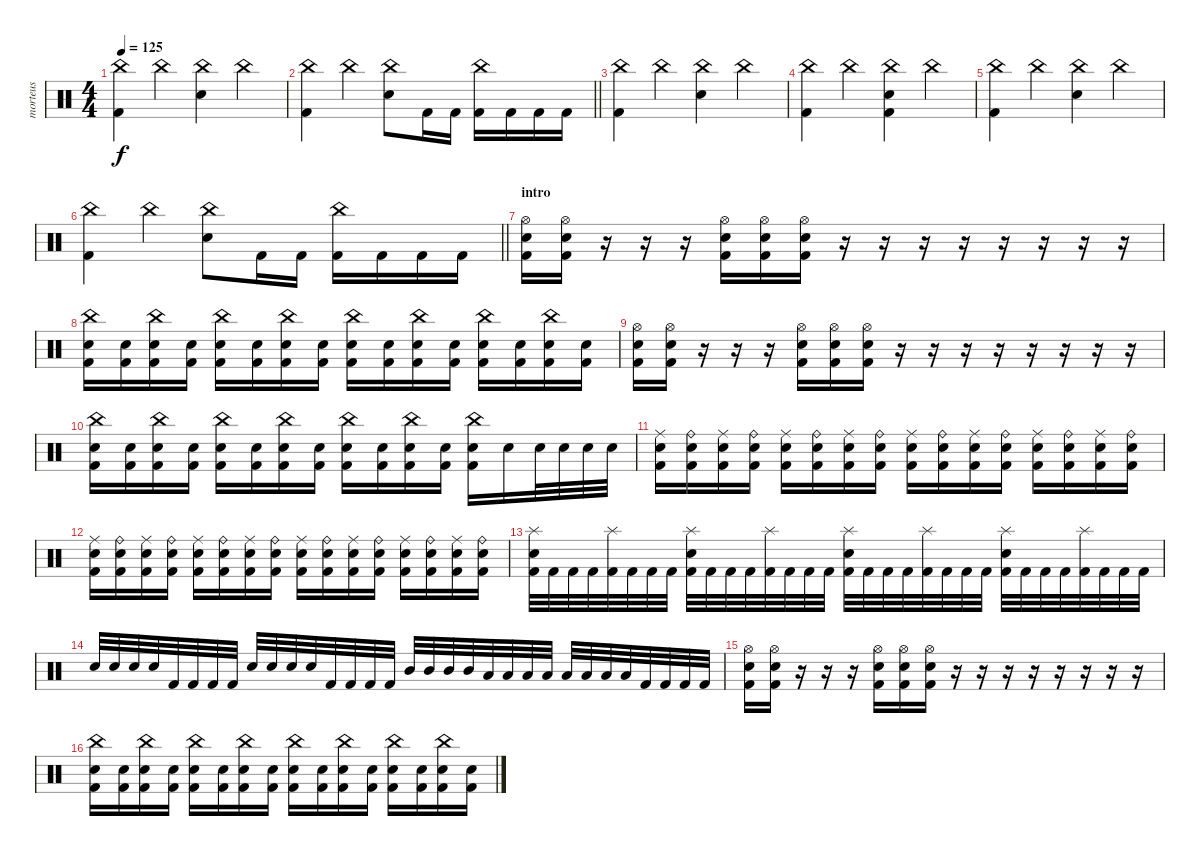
\track ("morteus" "morteus") {instrument percussion}
\staff {score}
\articulation defaults
\ts (4 4)
\tempo 125
\clef neutral
\ks c
("China (hit)" "Kick (hit) 2").4{dy f} "China (hit)".4 ("China (hit)" "Electric Snare (hit)").4 "China (hit)".4 |
\barLineRight lightlight
("China (hit)" "Kick (hit) 2").4 "China (hit)".4 ("China (hit)" "Electric Snare (hit)").8 "Kick (hit) 2".16 "Kick (hit) 2".16 ("China (hit)" "Kick (hit) 2").16 "Kick (hit) 2".16 "Kick (hit) 2".16 "Kick (hit) 2".16 |
("China (hit)" "Kick (hit) 2").4 "China (hit)".4 ("China (hit)" "Electric Snare (hit)").4 "China (hit)".4 |
("China (hit)" "Kick (hit) 2").4 "China (hit)".4 ("China (hit)" "Electric Snare (hit)" "Kick (hit) 2").4 "China (hit)".4 |
("China (hit)" "Kick (hit) 2").4 "China (hit)".4 ("China (hit)" "Electric Snare (hit)").4 "China (hit)".4 |
\barLineRight lightlight
("China (hit)" "Kick (hit) 2").4 "China (hit)".4 ("China (hit)" "Electric Snare (hit)").8 "Kick (hit) 2".16 "Kick (hit) 2".16 ("China (hit)" "Kick (hit) 2").16 "Kick (hit) 2".16 "Kick (hit) 2".16 "Kick (hit) 2".16 |
\section ("" "intro")
("Kick (hit) 2" "Hi-Hat (open)" "Electric Snare (hit)").16 ("Kick (hit) 2" "Hi-Hat (open)" "Electric Snare (hit)").16 r.16 r.16 r.16 ("Kick (hit) 2" "Hi-Hat (open)" "Electric Snare (hit)").16 ("Kick (hit) 2" "Hi-Hat (open)" "Electric Snare (hit)").16 ("Kick (hit) 2" "Hi-Hat (open)" "Electric Snare (hit)").16 r.16 r.16 r.16 r.16 r.16 r.16 r.16 r.16 |
("Kick (hit) 2" "Electric Snare (hit)" "China (hit)").16 ("Kick (hit) 2" "Electric Snare (hit)").16 ("Kick (hit) 2" "Electric Snare (hit)" "China (hit)").16 ("Kick (hit) 2" "Electric Snare (hit)").16 ("Kick (hit) 2" "Electric Snare (hit)" "China (hit)").16 ("Kick (hit) 2" "Electric Snare (hit)").16 ("Kick (hit) 2" "Electric Snare (hit)" "China (hit)").16 ("Kick (hit) 2" "Electric Snare (hit)").16 ("Kick (hit) 2" "Electric Snare (hit)" "China (hit)").16 ("Kick (hit) 2" "Electric Snare (hit)").16 ("Kick (hit) 2" "Electric Snare (hit)" "China (hit)").16 ("Kick (hit) 2" "Electric Snare (hit)").16 ("Kick (hit) 2" "Electric Snare (hit)" "China (hit)").16 ("Kick (hit) 2" "Electric Snare (hit)").16 ("Kick (hit) 2" "Electric Snare (hit)" "China (hit)").16 ("Kick (hit) 2" "Electric Snare (hit)").16 |
("Kick (hit) 2" "Hi-Hat (open)" "Electric Snare (hit)").16 ("Kick (hit) 2" "Hi-Hat (open)" "Electric Snare (hit)").16 r.16 r.16 r.16 ("Kick (hit) 2" "Hi-Hat (open)" "Electric Snare (hit)").16 ("Kick (hit) 2" "Hi-Hat (open)" "Electric Snare (hit)").16 ("Kick (hit) 2" "Hi-Hat (open)" "Electric Snare (hit)").16 r.16 r.16 r.16 r.16 r.16 r.16 r.16 r.16 |
("Kick (hit) 2" "Electric Snare (hit)" "China (hit)").16 ("Kick (hit) 2" "Electric Snare (hit)").16 ("Kick (hit) 2" "Electric Snare (hit)" "China (hit)").16 ("Kick (hit) 2" "Electric Snare (hit)").16 ("Kick (hit) 2" "Electric Snare (hit)" "China (hit)").16 ("Kick (hit) 2" "Electric Snare (hit)").16 ("Kick (hit) 2" "Electric Snare (hit)" "China (hit)").16 ("Kick (hit) 2" "Electric Snare (hit)").16 ("Kick (hit) 2" "Electric Snare (hit)" "China (hit)").16 ("Kick (hit) 2" "Electric Snare (hit)").16 ("Kick (hit) 2" "Electric Snare (hit)" "China (hit)").16 ("Kick (hit) 2" "Electric Snare (hit)").16 ("Kick (hit) 2" "Electric Snare (hit)" "China (hit)").16 "Electric Snare (hit)".16 "Electric Snare (hit)".32 "Electric Snare (hit)".32 "Electric Snare (hit)".32 "Electric Snare (hit)".32 |
("Kick (hit) 2" "Electric Snare (hit)" "Ride (middle)").16 ("Kick (hit) 2" "Electric Snare (hit)" "Ride (bell)").16 ("Kick (hit) 2" "Electric Snare (hit)" "Ride (middle)").16 ("Kick (hit) 2" "Electric Snare (hit)" "Ride (bell)").16 ("Kick (hit) 2" "Electric Snare (hit)" "Ride (middle)").16 ("Kick (hit) 2" "Electric Snare (hit)" "Ride (bell)").16 ("Kick (hit) 2" "Electric Snare (hit)" "Ride (middle)").16 ("Kick (hit) 2" "Electric Snare (hit)" "Ride (bell)").16 ("Kick (hit) 2" "Electric Snare (hit)" "Ride (middle)").16 ("Kick (hit) 2" "Electric Snare (hit)" "Ride (bell)").16 ("Kick (hit) 2" "Electric Snare (hit)" "Ride (middle)").16 ("Kick (hit) 2" "Electric Snare (hit)" "Ride (bell)").16 ("Kick (hit) 2" "Electric Snare (hit)" "Ride (middle)").16 ("Kick (hit) 2" "Electric Snare (hit)" "Ride (bell)").16 ("Kick (hit) 2" "Electric Snare (hit)" "Ride (middle)").16 ("Kick (hit) 2" "Electric Snare (hit)" "Ride (bell)").16 |
("Kick (hit) 2" "Electric Snare (hit)" "Ride (middle)").16 ("Kick (hit) 2" "Electric Snare (hit)" "Ride (bell)").16 ("Kick (hit) 2" "Electric Snare (hit)" "Ride (middle)").16 ("Kick (hit) 2" "Electric Snare (hit)" "Ride (bell)").16 ("Kick (hit) 2" "Electric Snare (hit)" "Ride (middle)").16 ("Kick (hit) 2" "Electric Snare (hit)" "Ride (bell)").16 ("Kick (hit) 2" "Electric Snare (hit)" "Ride (middle)").16 ("Kick (hit) 2" "Electric Snare (hit)" "Ride (bell)").16 ("Kick (hit) 2" "Electric Snare (hit)" "Ride (middle)").16 ("Kick (hit) 2" "Electric Snare (hit)" "Ride (bell)").16 ("Kick (hit) 2" "Electric Snare (hit)" "Ride (middle)").16 ("Kick (hit) 2" "Electric Snare (hit)" "Ride (bell)").16 ("Kick (hit) 2" "Electric Snare (hit)" "Ride (middle)").16 ("Kick (hit) 2" "Electric Snare (hit)" "Ride (bell)").16 ("Kick (hit) 2" "Electric Snare (hit)" "Ride (middle)").16 ("Kick (hit) 2" "Electric Snare (hit)" "Ride (bell)").16 |
("Kick (hit) 2" "Electric Snare (hit)" "Splash (hit)").32 "Kick (hit) 2".32 "Kick (hit) 2".32 "Kick (hit) 2".32 ("Kick (hit) 2" "Splash (hit)").32 "Kick (hit) 2".32 "Kick (hit) 2".32 "Kick (hit) 2".32 ("Kick (hit) 2" "Electric Snare (hit)" "Splash (hit)").32 "Kick (hit) 2".32 "Kick (hit) 2".32 "Kick (hit) 2".32 ("Kick (hit) 2" "Splash (hit)").32 "Kick (hit) 2".32 "Kick (hit) 2".32 "Kick (hit) 2".32 ("Kick (hit) 2" "Electric Snare (hit)" "Splash (hit)").32 "Kick (hit) 2".32 "Kick (hit) 2".32 "Kick (hit) 2".32 ("Kick (hit) 2" "Splash (hit)").32 "Kick (hit) 2".32 "Kick (hit) 2".32 "Kick (hit) 2".32 ("Kick (hit) 2" "Electric Snare (hit)" "Splash (hit)").32 "Kick (hit) 2".32 "Kick (hit) 2".32 "Kick (hit) 2".32 ("Kick (hit) 2" "Splash (hit)").32 "Kick (hit) 2".32 "Kick (hit) 2".32 "Kick (hit) 2".32 |
"Electric Snare (hit)".32 "Electric Snare (hit)".32 "Electric Snare (hit)".32 "Electric Snare (hit)".32 "Kick (hit) 2".32 "Kick (hit) 2".32 "Kick (hit) 2".32 "Kick (hit) 2".32 "Electric Snare (hit)".32 "Electric Snare (hit)".32 "Electric Snare (hit)".32 "Electric Snare (hit)".32 "Kick (hit) 2".32 "Kick (hit) 2".32 "Kick (hit) 2".32 "Kick (hit) 2".32 "Mid Tom (hit)".32 "Mid Tom (hit)".32 "Mid Tom (hit)".32 "Mid Tom (hit)".32 "Low Tom (hit)".32 "Low Tom (hit)".32 "Low Tom (hit)".32 "Low Tom (hit)".32 "Low Floor Tom (hit)".32 "Low Floor Tom (hit)".32 "Low Floor Tom (hit)".32 "Low Floor Tom (hit)".32 "Kick (hit) 2".32 "Kick (hit) 2".32 "Kick (hit) 2".32 "Kick (hit) 2".32 |
("Kick (hit) 2" "Hi-Hat (open)" "Electric Snare (hit)").16 ("Kick (hit) 2" "Hi-Hat (open)" "Electric Snare (hit)").16 r.16 r.16 r.16 ("Kick (hit) 2" "Hi-Hat (open)" "Electric Snare (hit)").16 ("Kick (hit) 2" "Hi-Hat (open)" "Electric Snare (hit)").16 ("Kick (hit) 2" "Hi-Hat (open)" "Electric Snare (hit)").16 r.16 r.16 r.16 r.16 r.16 r.16 r.16 r.16 |
("Kick (hit) 2" "Electric Snare (hit)" "China (hit)").16 ("Kick (hit) 2" "Electric Snare (hit)").16 ("Kick (hit) 2" "Electric Snare (hit)" "China (hit)").16 ("Kick (hit) 2" "Electric Snare (hit)").16 ("Kick (hit) 2" "Electric Snare (hit)" "China (hit)").16 ("Kick (hit) 2" "Electric Snare (hit)").16 ("Kick (hit) 2" "Electric Snare (hit)" "China (hit)").16 ("Kick (hit) 2" "Electric Snare (hit)").16 ("Kick (hit) 2" "Electric Snare (hit)" "China (hit)").16 ("Kick (hit) 2" "Electric Snare (hit)").16 ("Kick (hit) 2" "Electric Snare (hit)" "China (hit)").16 ("Kick (hit) 2" "Electric Snare (hit)").16 ("Kick (hit) 2" "Electric Snare (hit)" "China (hit)").16 ("Kick (hit) 2" "Electric Snare (hit)").16 ("Kick (hit) 2" "Electric Snare (hit)" "China (hit)").16 ("Kick (hit) 2" "Electric Snare (hit)").16
